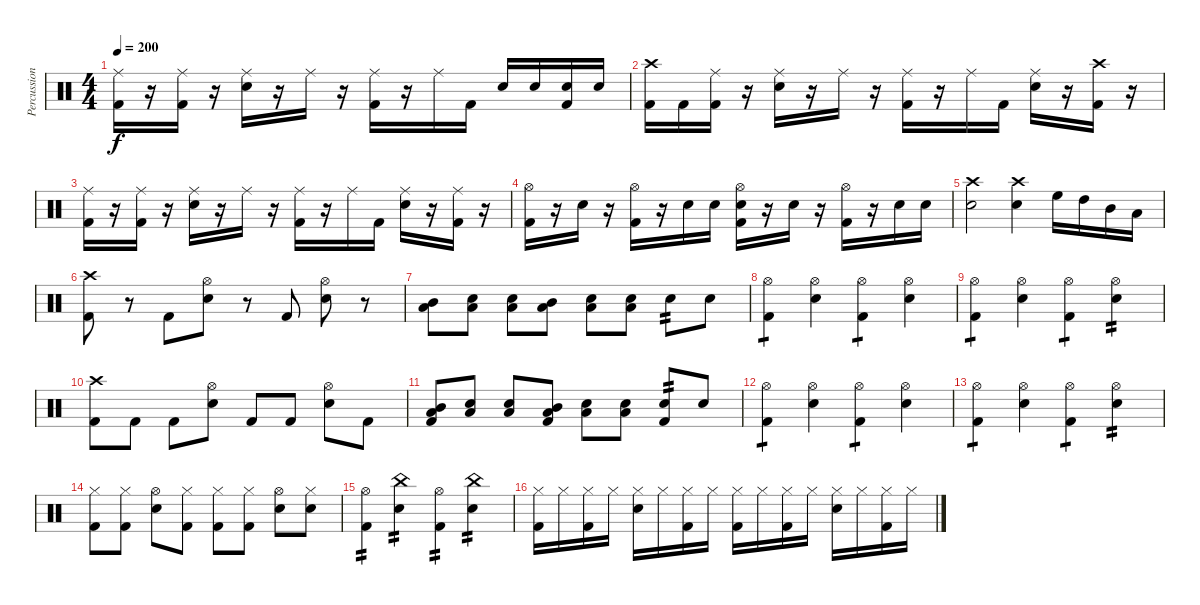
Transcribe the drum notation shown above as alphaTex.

\track ("Percussion" "Percussion") {instrument percussion}
\staff {score}
\articulation defaults
\ts (4 4)
\tempo 200
\clef neutral
\ks c
("Ride (middle)" "Kick (hit) 2").16{dy f} r.16 ("Ride (middle)" "Kick (hit) 2").16 r.16 ("Ride (middle)" "Electric Snare (hit)").16 r.16 "Ride (middle)".16 r.16 ("Ride (middle)" "Kick (hit) 2").16 r.16 "Ride (middle)".16 "Kick (hit) 2".16 "Electric Snare (hit)".16 "Electric Snare (hit)".16 ("Electric Snare (hit)" "Kick (hit) 2").16 "Electric Snare (hit)".16 |
("Crash high (hit)" "Kick (hit) 2").16 "Kick (hit) 2".16 ("Ride (middle)" "Kick (hit) 2").16 r.16 ("Ride (middle)" "Electric Snare (hit)").16 r.16 "Ride (middle)".16 r.16 ("Ride (middle)" "Kick (hit) 2").16 r.16 "Ride (middle)".16 "Kick (hit) 2".16 ("Ride (middle)" "Electric Snare (hit)").16 r.16 ("Crash high (hit)" "Kick (hit) 2").16 r.16 |
("Ride (middle)" "Kick (hit) 2").16 r.16 ("Ride (middle)" "Kick (hit) 2").16 r.16 ("Ride (middle)" "Electric Snare (hit)").16 r.16 "Ride (middle)".16 r.16 ("Ride (middle)" "Kick (hit) 2").16 r.16 "Ride (middle)".16 "Kick (hit) 2".16 ("Ride (middle)" "Electric Snare (hit)").16 r.16 ("Ride (middle)" "Kick (hit) 2").16 r.16 |
("Hi-Hat (open)" "Kick (hit) 2").16 r.16 "Electric Snare (hit)".16 r.16 ("Hi-Hat (open)" "Kick (hit) 2").16 r.16 "Electric Snare (hit)".16 "Electric Snare (hit)".16 ("Hi-Hat (open)" "Electric Snare (hit)" "Kick (hit) 2").16 r.16 "Electric Snare (hit)".16 r.16 ("Hi-Hat (open)" "Kick (hit) 2").16 r.16 "Electric Snare (hit)".16 "Electric Snare (hit)".16 |
("Crash high (hit)" "Electric Snare (hit)").2 ("Crash high (hit)" "Electric Snare (hit)").4 "High Floor Tom (hit)".16 "High Tom (hit)".16 "Mid Tom (hit)".16 "Low Tom (hit)".16 |
("Crash high (hit)" "Kick (hit) 2").8 r.8 "Kick (hit) 2".8 ("Hi-Hat (open)" "Electric Snare (hit)").8 r.8 "Kick (hit) 2".8 ("Hi-Hat (open)" "Electric Snare (hit)").8 r.8 |
("Low Tom (hit)" "Mid Tom (hit)").8 ("Low Floor Tom (hit)" "Electric Snare (hit)").8 ("Low Floor Tom (hit)" "Electric Snare (hit)").8 ("Low Tom (hit)" "Mid Tom (hit)").8 ("Low Floor Tom (hit)" "Electric Snare (hit)").8 ("Low Floor Tom (hit)" "Electric Snare (hit)").8 "Electric Snare (hit)".8{tp 2} "Electric Snare (hit)".8 |
("Hi-Hat (open)" "Kick (hit) 2").4{tp 1} ("Hi-Hat (open)" "Electric Snare (hit)").4 ("Hi-Hat (open)" "Kick (hit) 2").4{tp 1} ("Hi-Hat (open)" "Electric Snare (hit)").4 |
("Hi-Hat (open)" "Kick (hit) 2").4{tp 1} ("Hi-Hat (open)" "Electric Snare (hit)").4 ("Hi-Hat (open)" "Kick (hit) 2").4{tp 1} ("Hi-Hat (open)" "Electric Snare (hit)").4{tp 2} |
("Crash high (hit)" "Kick (hit) 2").8 "Kick (hit) 2".8 "Kick (hit) 2".8 ("Hi-Hat (open)" "Electric Snare (hit)").8 "Kick (hit) 2".8 "Kick (hit) 2".8 ("Hi-Hat (open)" "Electric Snare (hit)").8 "Kick (hit) 2".8 |
("Low Tom (hit)" "Mid Tom (hit)" "Kick (hit) 2").8 ("Low Floor Tom (hit)" "Electric Snare (hit)").8 ("Low Floor Tom (hit)" "Electric Snare (hit)").8 ("Low Tom (hit)" "Mid Tom (hit)" "Kick (hit) 2").8 ("Low Floor Tom (hit)" "Electric Snare (hit)").8 ("Low Floor Tom (hit)" "Electric Snare (hit)").8 ("Electric Snare (hit)" "Kick (hit) 2").8{tp 2} "Electric Snare (hit)".8 |
("Hi-Hat (open)" "Kick (hit) 2").4{tp 1} ("Hi-Hat (open)" "Electric Snare (hit)").4 ("Hi-Hat (open)" "Kick (hit) 2").4{tp 1} ("Hi-Hat (open)" "Electric Snare (hit)").4 |
("Hi-Hat (open)" "Kick (hit) 2").4{tp 1} ("Hi-Hat (open)" "Electric Snare (hit)").4 ("Hi-Hat (open)" "Kick (hit) 2").4{tp 1} ("Hi-Hat (open)" "Electric Snare (hit)").4{tp 2} |
("Hi-Hat (closed)" "Kick (hit) 2").8 ("Hi-Hat (closed)" "Kick (hit) 2").8 ("Hi-Hat (open)" "Electric Snare (hit)").8 ("Hi-Hat (closed)" "Kick (hit) 2").8 ("Hi-Hat (closed)" "Kick (hit) 2").8 ("Hi-Hat (closed)" "Kick (hit) 2").8 ("Hi-Hat (open)" "Electric Snare (hit)").8 ("Hi-Hat (closed)" "Snare (hit)").8 |
("Hi-Hat (open)" "Kick (hit) 2").4{tp 2} ("China (hit)" "Electric Snare (hit)").4{tp 2} ("Hi-Hat (open)" "Kick (hit) 2").4{tp 2} ("China (hit)" "Electric Snare (hit)").4{tp 2} |
("Hi-Hat (closed)" "Kick (hit) 2").16 "Hi-Hat (closed)".16 ("Hi-Hat (closed)" "Kick (hit) 2").16 "Hi-Hat (closed)".16 ("Hi-Hat (closed)" "Electric Snare (hit)").16 "Hi-Hat (closed)".16 ("Hi-Hat (closed)" "Kick (hit) 2").16 "Hi-Hat (closed)".16 ("Hi-Hat (closed)" "Kick (hit) 2").16 "Hi-Hat (closed)".16 ("Hi-Hat (closed)" "Kick (hit) 2").16 "Hi-Hat (closed)".16 ("Hi-Hat (closed)" "Electric Snare (hit)").16 "Hi-Hat (closed)".16 ("Hi-Hat (closed)" "Kick (hit) 2").16 "Hi-Hat (closed)".16
